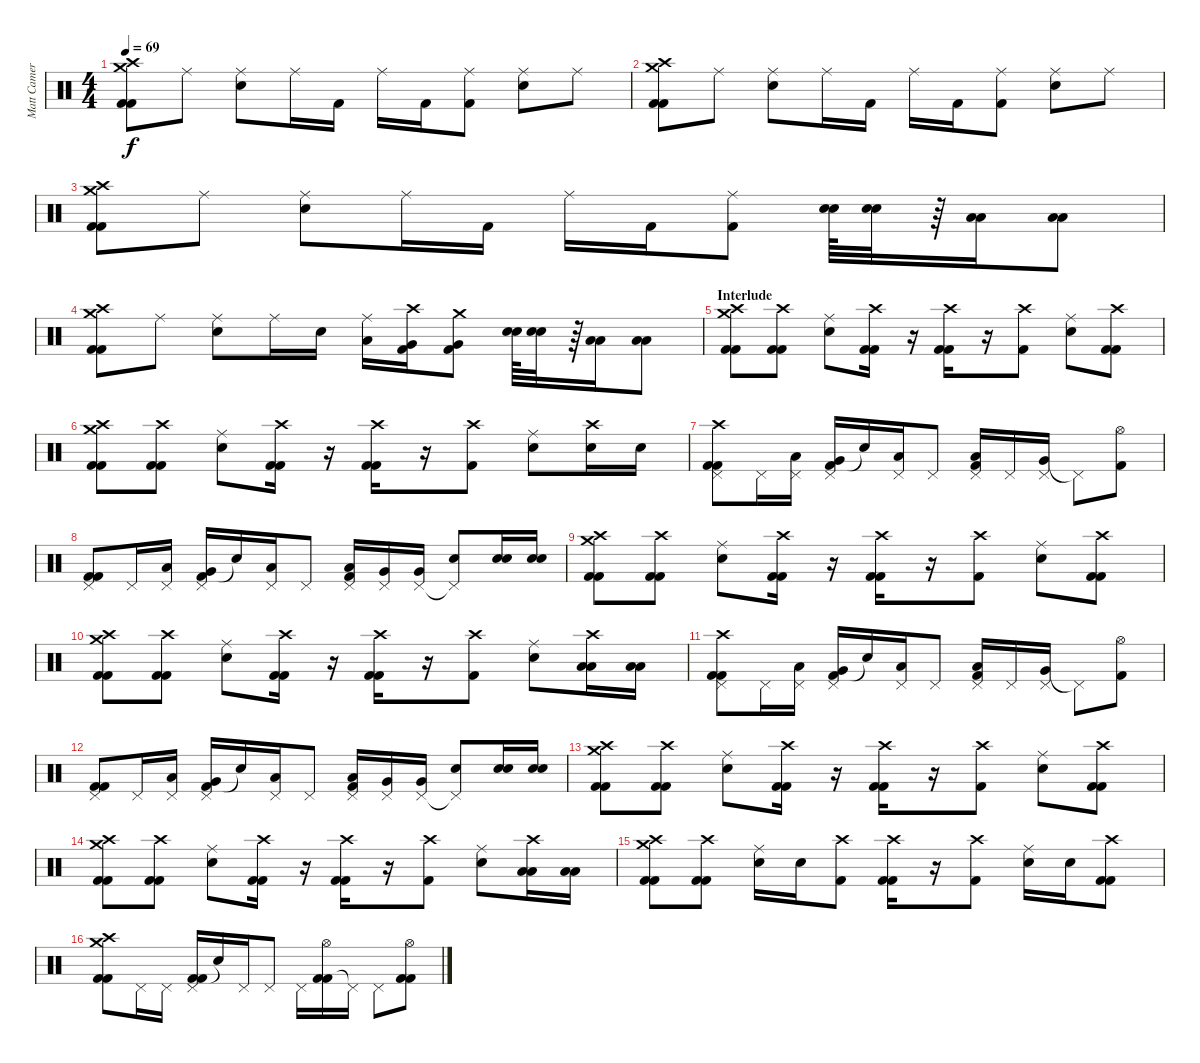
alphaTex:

\track ("Matt Cameron" "Matt Camer") {instrument percussion}
\staff {score}
\articulation defaults
\ts (4 4)
\tempo 69
\clef neutral
\ks c
("Crash high (hit)" "Kick (hit) 2" "Kick (hit) 2" "Crash medium (hit)").8{dy f} "Ride (middle)".8 ("Electric Snare (hit)" "Ride (middle)").8 "Ride (middle)".16 "Kick (hit) 2".16 "Ride (middle)".16 "Kick (hit) 2".16 ("Kick (hit) 2" "Ride (middle)").8 ("Electric Snare (hit)" "Ride (middle)").8 "Ride (middle)".8 |
("Crash high (hit)" "Kick (hit) 2" "Kick (hit) 2" "Crash medium (hit)").8 "Ride (middle)".8 ("Electric Snare (hit)" "Ride (middle)").8 "Ride (middle)".16 "Kick (hit) 2".16 "Ride (middle)".16 "Kick (hit) 2".16 ("Kick (hit) 2" "Ride (middle)").8 ("Electric Snare (hit)" "Ride (middle)").8 "Ride (middle)".8 |
("Crash high (hit)" "Kick (hit) 2" "Kick (hit) 2" "Crash medium (hit)").8 "Ride (middle)".8 ("Electric Snare (hit)" "Ride (middle)").8 "Ride (middle)".16 "Kick (hit) 2".16 "Ride (middle)".16 "Kick (hit) 2".16 ("Kick (hit) 2" "Ride (middle)").8 ("Electric Snare (hit)" "Electric Snare (hit)").64 ("Electric Snare (hit)" "Electric Snare (hit)").32 r.64 ("Low Tom (hit)" "Low Tom (hit)").16 ("Low Tom (hit)" "Low Tom (hit)").8 |
("Crash high (hit)" "Kick (hit) 2" "Kick (hit) 2" "Crash medium (hit)").8 "Ride (middle)".8 ("Electric Snare (hit)" "Ride (middle)").8 "Ride (middle)".16 "Electric Snare (hit)".16 ("Low Tom (hit)" "Ride (middle)").16 ("Very Low Tom (hit)" "Kick (hit) 2" "Crash high (hit)").16 ("Very Low Tom (hit)" "Kick (hit) 2" "Crash medium (hit)").8 ("Electric Snare (hit)" "Electric Snare (hit)").64 ("Electric Snare (hit)" "Electric Snare (hit)").32 r.64 ("Low Tom (hit)" "Low Tom (hit)").16 ("Low Tom (hit)" "Low Tom (hit)").8 |
\section ("" "Interlude")
("Crash high (hit)" "Kick (hit) 2" "Kick (hit) 2" "Crash medium (hit)").8 ("Kick (hit) 2" "Kick (hit) 2" "Crash high (hit)").8 ("Electric Snare (hit)" "Ride (middle)").8 ("Kick (hit) 2" "Kick (hit) 2" "Crash high (hit)").16 r.16 ("Kick (hit) 2" "Kick (hit) 2" "Crash high (hit)").16 r.16 ("Kick (hit) 2" "Crash high (hit)").8 ("Electric Snare (hit)" "Ride (middle)").8 ("Kick (hit) 2" "Kick (hit) 2" "Crash high (hit)").8 |
("Crash high (hit)" "Kick (hit) 2" "Kick (hit) 2" "Crash medium (hit)").8 ("Kick (hit) 2" "Kick (hit) 2" "Crash high (hit)").8 ("Electric Snare (hit)" "Ride (middle)").8 ("Kick (hit) 2" "Kick (hit) 2" "Crash high (hit)").16 r.16 ("Kick (hit) 2" "Kick (hit) 2" "Crash high (hit)").16 r.16 ("Kick (hit) 2" "Crash high (hit)").8 ("Electric Snare (hit)" "Ride (middle)").8 ("Electric Snare (hit)" "Crash high (hit)").16 "Electric Snare (hit)".16 |
("Crash high (hit)" "Kick (hit) 2" "Kick (hit) 2" "Pedal Hi-Hat (hit)").8 "Pedal Hi-Hat (hit)".16 ("Low Tom (hit)" "Pedal Hi-Hat (hit)").16 ("Kick (hit) 2" "Very Low Tom (hit)" "Pedal Hi-Hat (hit)").16 "Snare (hit)"{t}.16 ("Low Tom (hit)" "Pedal Hi-Hat (hit)").16 "Pedal Hi-Hat (hit)".8 ("Kick (hit) 2" "Low Tom (hit)" "Pedal Hi-Hat (hit)").16 "Pedal Hi-Hat (hit)".16 ("Very Low Tom (hit)" "Pedal Hi-Hat (hit)").16 "Pedal Hi-Hat (hit)"{t}.8 ("Kick (hit) 2" "Hi-Hat (open)").8 |
("Kick (hit) 2" "Kick (hit) 2" "Pedal Hi-Hat (hit)").8 "Pedal Hi-Hat (hit)".16 ("Low Tom (hit)" "Pedal Hi-Hat (hit)").16 ("Kick (hit) 2" "Very Low Tom (hit)" "Pedal Hi-Hat (hit)").16 "Snare (hit)"{t}.16 ("Low Tom (hit)" "Pedal Hi-Hat (hit)").16 "Pedal Hi-Hat (hit)".8 ("Kick (hit) 2" "Low Tom (hit)" "Pedal Hi-Hat (hit)").16 ("Very Low Tom (hit)" "Pedal Hi-Hat (hit)").16 ("Very Low Tom (hit)" "Pedal Hi-Hat (hit)").16 ("Electric Snare (hit)" "Pedal Hi-Hat (hit)"{t}).8 ("Electric Snare (hit)" "Electric Snare (hit)").16 ("Electric Snare (hit)" "Electric Snare (hit)").16 |
("Crash high (hit)" "Kick (hit) 2" "Kick (hit) 2" "Crash medium (hit)").8 ("Kick (hit) 2" "Kick (hit) 2" "Crash high (hit)").8 ("Electric Snare (hit)" "Ride (middle)").8 ("Kick (hit) 2" "Kick (hit) 2" "Crash high (hit)").16 r.16 ("Kick (hit) 2" "Kick (hit) 2" "Crash high (hit)").16 r.16 ("Kick (hit) 2" "Crash high (hit)").8 ("Electric Snare (hit)" "Ride (middle)").8 ("Kick (hit) 2" "Kick (hit) 2" "Crash high (hit)").8 |
("Crash high (hit)" "Kick (hit) 2" "Kick (hit) 2" "Crash medium (hit)").8 ("Kick (hit) 2" "Kick (hit) 2" "Crash high (hit)").8 ("Electric Snare (hit)" "Ride (middle)").8 ("Kick (hit) 2" "Kick (hit) 2" "Crash high (hit)").16 r.16 ("Kick (hit) 2" "Kick (hit) 2" "Crash high (hit)").16 r.16 ("Kick (hit) 2" "Crash high (hit)").8 ("Electric Snare (hit)" "Ride (middle)").8 ("Low Tom (hit)" "Low Tom (hit)" "Crash high (hit)").16 ("Low Tom (hit)" "Low Tom (hit)").16 |
("Crash high (hit)" "Kick (hit) 2" "Kick (hit) 2" "Pedal Hi-Hat (hit)").8 "Pedal Hi-Hat (hit)".16 ("Low Tom (hit)" "Pedal Hi-Hat (hit)").16 ("Kick (hit) 2" "Very Low Tom (hit)" "Pedal Hi-Hat (hit)").16 "Snare (hit)"{t}.16 ("Low Tom (hit)" "Pedal Hi-Hat (hit)").16 "Pedal Hi-Hat (hit)".8 ("Kick (hit) 2" "Low Tom (hit)" "Pedal Hi-Hat (hit)").16 "Pedal Hi-Hat (hit)".16 ("Very Low Tom (hit)" "Pedal Hi-Hat (hit)").16 "Pedal Hi-Hat (hit)"{t}.8 ("Kick (hit) 2" "Hi-Hat (open)").8 |
("Kick (hit) 2" "Kick (hit) 2" "Pedal Hi-Hat (hit)").8 "Pedal Hi-Hat (hit)".16 ("Low Tom (hit)" "Pedal Hi-Hat (hit)").16 ("Kick (hit) 2" "Very Low Tom (hit)" "Pedal Hi-Hat (hit)").16 "Snare (hit)"{t}.16 ("Low Tom (hit)" "Pedal Hi-Hat (hit)").16 "Pedal Hi-Hat (hit)".8 ("Kick (hit) 2" "Low Tom (hit)" "Pedal Hi-Hat (hit)").16 ("Very Low Tom (hit)" "Pedal Hi-Hat (hit)").16 ("Very Low Tom (hit)" "Pedal Hi-Hat (hit)").16 ("Electric Snare (hit)" "Pedal Hi-Hat (hit)"{t}).8 ("Electric Snare (hit)" "Electric Snare (hit)").16 ("Electric Snare (hit)" "Electric Snare (hit)").16 |
("Crash high (hit)" "Kick (hit) 2" "Kick (hit) 2" "Crash medium (hit)").8 ("Kick (hit) 2" "Kick (hit) 2" "Crash high (hit)").8 ("Electric Snare (hit)" "Ride (middle)").8 ("Kick (hit) 2" "Kick (hit) 2" "Crash high (hit)").16 r.16 ("Kick (hit) 2" "Kick (hit) 2" "Crash high (hit)").16 r.16 ("Kick (hit) 2" "Crash high (hit)").8 ("Electric Snare (hit)" "Ride (middle)").8 ("Kick (hit) 2" "Kick (hit) 2" "Crash high (hit)").8 |
("Crash high (hit)" "Kick (hit) 2" "Kick (hit) 2" "Crash medium (hit)").8 ("Kick (hit) 2" "Kick (hit) 2" "Crash high (hit)").8 ("Electric Snare (hit)" "Ride (middle)").8 ("Kick (hit) 2" "Kick (hit) 2" "Crash high (hit)").16 r.16 ("Kick (hit) 2" "Kick (hit) 2" "Crash high (hit)").16 r.16 ("Kick (hit) 2" "Crash high (hit)").8 ("Electric Snare (hit)" "Ride (middle)").8 ("Low Tom (hit)" "Low Tom (hit)" "Crash high (hit)").16 ("Low Tom (hit)" "Low Tom (hit)").16 |
("Crash high (hit)" "Kick (hit) 2" "Kick (hit) 2" "Crash medium (hit)").8 ("Kick (hit) 2" "Kick (hit) 2" "Crash high (hit)").8 ("Electric Snare (hit)" "Ride (middle)").16 "Electric Snare (hit)".16 ("Kick (hit) 2" "Crash high (hit)").8 ("Kick (hit) 2" "Kick (hit) 2" "Crash high (hit)").16 r.16 ("Kick (hit) 2" "Crash high (hit)").8 ("Electric Snare (hit)" "Ride (middle)").16 "Electric Snare (hit)".16 ("Kick (hit) 2" "Kick (hit) 2" "Crash high (hit)").8 |
("Crash medium (hit)" "Kick (hit) 2" "Kick (hit) 2" "Crash high (hit)").8 "Pedal Hi-Hat (hit)".16 "Pedal Hi-Hat (hit)".16 ("Kick (hit) 2" "Kick (hit) 2" "Pedal Hi-Hat (hit)").16 "Snare (hit)"{t}.16 "Pedal Hi-Hat (hit)".16 "Pedal Hi-Hat (hit)".8 "Pedal Hi-Hat (hit)".16 ("Kick (hit) 2" "Kick (hit) 2" "Hi-Hat (open)").16 "Pedal Hi-Hat (hit)"{t}.16 "Pedal Hi-Hat (hit)".8 ("Kick (hit) 2" "Kick (hit) 2" "Hi-Hat (open)").8
